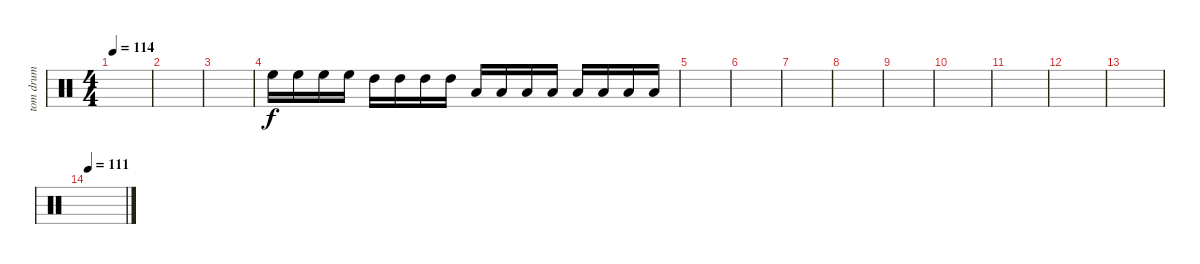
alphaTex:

\track ("tom drum" "tom drum") {instrument percussion}
\staff {score}
\articulation defaults
\ts (4 4)
\tempo 114
\clef neutral
\ks c
|
|
|
"High Floor Tom (hit)".16 "High Floor Tom (hit)".16 "High Floor Tom (hit)".16 "High Floor Tom (hit)".16 "High Tom (hit)".16 "High Tom (hit)".16 "High Tom (hit)".16 "High Tom (hit)".16 "Low Tom (hit)".16 "Low Tom (hit)".16 "Low Tom (hit)".16 "Low Tom (hit)".16 "Low Tom (hit)".16 "Low Tom (hit)".16 "Low Tom (hit)".16 "Low Tom (hit)".16 |
|
|
|
|
|
|
|
|
|
\tempo 111
